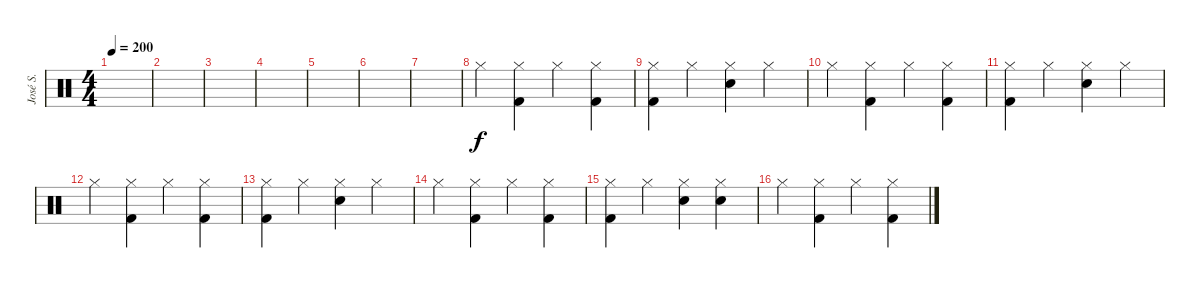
\track ("José S." "José S.") {instrument percussion}
\staff {score}
\articulation defaults
\ts (4 4)
\tempo 200
\clef neutral
\ks c
|
|
|
|
|
|
|
"Hi-Hat (closed)".4 ("Hi-Hat (closed)" "Kick (hit) 2").4 "Hi-Hat (closed)".4 ("Hi-Hat (closed)" "Kick (hit) 2").4 |
("Hi-Hat (closed)" "Kick (hit) 2").4 "Hi-Hat (closed)".4 ("Hi-Hat (closed)" "Snare (hit) 2").4 "Hi-Hat (closed)".4 |
"Hi-Hat (closed)".4 ("Hi-Hat (closed)" "Kick (hit) 2").4 "Hi-Hat (closed)".4 ("Hi-Hat (closed)" "Kick (hit) 2").4 |
("Hi-Hat (closed)" "Kick (hit) 2").4 "Hi-Hat (closed)".4 ("Hi-Hat (closed)" "Snare (hit) 2").4 "Hi-Hat (closed)".4 |
"Hi-Hat (closed)".4 ("Hi-Hat (closed)" "Kick (hit) 2").4 "Hi-Hat (closed)".4 ("Hi-Hat (closed)" "Kick (hit) 2").4 |
("Hi-Hat (closed)" "Kick (hit) 2").4 "Hi-Hat (closed)".4 ("Hi-Hat (closed)" "Snare (hit) 2").4 "Hi-Hat (closed)".4 |
"Hi-Hat (closed)".4 ("Hi-Hat (closed)" "Kick (hit) 2").4 "Hi-Hat (closed)".4 ("Hi-Hat (closed)" "Kick (hit) 2").4 |
("Hi-Hat (closed)" "Kick (hit) 2").4 "Hi-Hat (closed)".4 ("Hi-Hat (closed)" "Snare (hit) 2").4 ("Hi-Hat (closed)" "Snare (hit) 2").4 |
"Hi-Hat (closed)".4 ("Hi-Hat (closed)" "Kick (hit) 2").4 "Hi-Hat (closed)".4 ("Hi-Hat (closed)" "Kick (hit) 2").4
